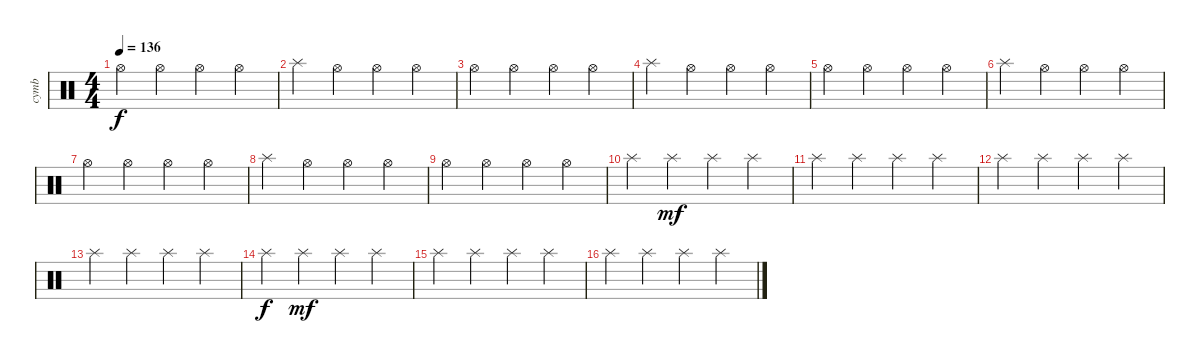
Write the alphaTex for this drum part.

\track ("cymb" "cymb") {instrument percussion}
\staff {score}
\articulation defaults
\ts (4 4)
\tempo 136
\clef neutral
\ks c "Hi-Hat (open)".4{dy f} "Hi-Hat (open)".4 "Hi-Hat (open)".4 "Hi-Hat (open)".4
|
"Splash (hit)".4 "Hi-Hat (open)".4 "Hi-Hat (open)".4 "Hi-Hat (open)".4 |
"Hi-Hat (open)".4 "Hi-Hat (open)".4 "Hi-Hat (open)".4 "Hi-Hat (open)".4 |
"Splash (hit)".4 "Hi-Hat (open)".4 "Hi-Hat (open)".4 "Hi-Hat (open)".4 |
"Hi-Hat (open)".4 "Hi-Hat (open)".4 "Hi-Hat (open)".4 "Hi-Hat (open)".4 |
"Splash (hit)".4 "Hi-Hat (open)".4 "Hi-Hat (open)".4 "Hi-Hat (open)".4 |
"Hi-Hat (open)".4 "Hi-Hat (open)".4 "Hi-Hat (open)".4 "Hi-Hat (open)".4 |
"Splash (hit)".4 "Hi-Hat (open)".4 "Hi-Hat (open)".4 "Hi-Hat (open)".4 |
"Hi-Hat (open)".4 "Hi-Hat (open)".4 "Hi-Hat (open)".4 "Hi-Hat (open)".4 |
"Splash (hit)".4 "Splash (hit)".4{dy mf} "Splash (hit)".4 "Splash (hit)".4 |
"Splash (hit)".4 "Splash (hit)".4 "Splash (hit)".4 "Splash (hit)".4 |
"Splash (hit)".4 "Splash (hit)".4 "Splash (hit)".4 "Splash (hit)".4 |
"Splash (hit)".4 "Splash (hit)".4 "Splash (hit)".4 "Splash (hit)".4 |
"Splash (hit)".4{dy f} "Splash (hit)".4{dy mf} "Splash (hit)".4 "Splash (hit)".4 |
"Splash (hit)".4 "Splash (hit)".4 "Splash (hit)".4 "Splash (hit)".4 |
"Splash (hit)".4 "Splash (hit)".4 "Splash (hit)".4 "Splash (hit)".4
